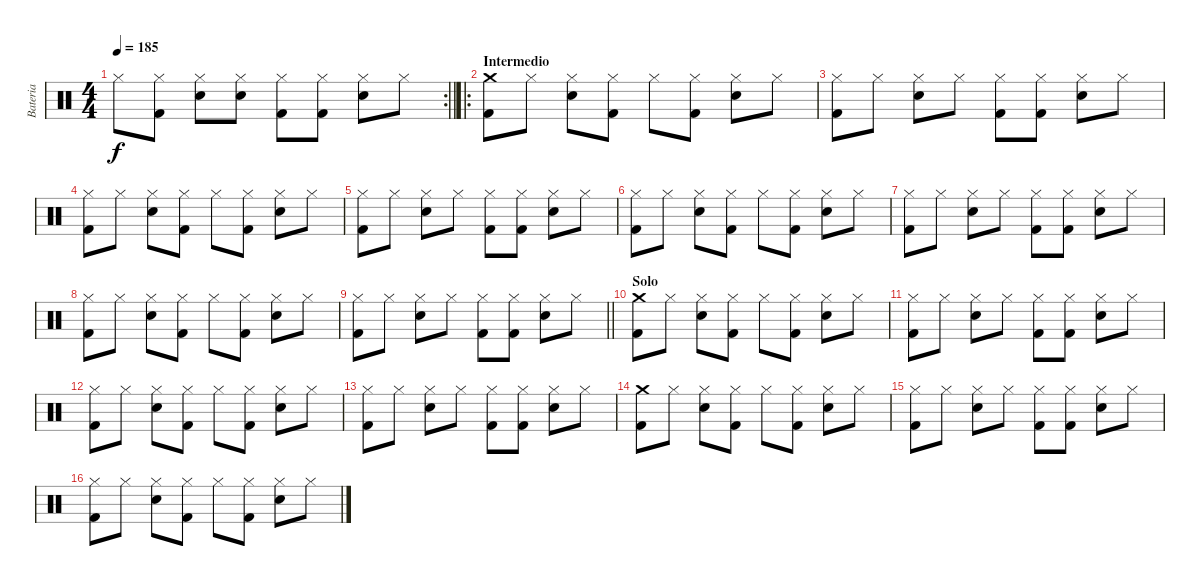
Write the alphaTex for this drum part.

\track ("Bateria" "Bateria") {instrument percussion}
\staff {score}
\articulation defaults
\rc 2
\ts (4 4)
\tempo 185
\clef neutral
\barLineRight lightlight
\ks c "Hi-Hat (closed)".8{dy f}
("Hi-Hat (closed)" "Kick (hit) 2").8 ("Hi-Hat (closed)" "Snare (hit) 2").8 ("Hi-Hat (closed)" "Snare (hit) 2").8 ("Hi-Hat (closed)" "Kick (hit) 2").8 ("Hi-Hat (closed)" "Kick (hit) 2").8 ("Hi-Hat (closed)" "Snare (hit) 2").8 "Hi-Hat (closed)".8 |
\ro
\section ("" "Intermedio")
("Crash medium (hit)" "Kick (hit) 2").8 "Hi-Hat (closed)".8 ("Hi-Hat (closed)" "Snare (hit) 2").8 ("Hi-Hat (closed)" "Kick (hit) 2").8 "Hi-Hat (closed)".8 ("Hi-Hat (closed)" "Kick (hit) 2").8 ("Hi-Hat (closed)" "Snare (hit) 2").8 "Hi-Hat (closed)".8 |
("Hi-Hat (closed)" "Kick (hit) 2").8 "Hi-Hat (closed)".8 ("Hi-Hat (closed)" "Snare (hit) 2").8 "Hi-Hat (closed)".8 ("Hi-Hat (closed)" "Kick (hit) 2").8 ("Hi-Hat (closed)" "Kick (hit) 2").8 ("Hi-Hat (closed)" "Snare (hit) 2").8 "Hi-Hat (closed)".8 |
("Hi-Hat (closed)" "Kick (hit) 2").8 "Hi-Hat (closed)".8 ("Hi-Hat (closed)" "Snare (hit) 2").8 ("Hi-Hat (closed)" "Kick (hit) 2").8 "Hi-Hat (closed)".8 ("Hi-Hat (closed)" "Kick (hit) 2").8 ("Hi-Hat (closed)" "Snare (hit) 2").8 "Hi-Hat (closed)".8 |
("Hi-Hat (closed)" "Kick (hit) 2").8 "Hi-Hat (closed)".8 ("Hi-Hat (closed)" "Snare (hit) 2").8 "Hi-Hat (closed)".8 ("Hi-Hat (closed)" "Kick (hit) 2").8 ("Hi-Hat (closed)" "Kick (hit) 2").8 ("Hi-Hat (closed)" "Snare (hit) 2").8 "Hi-Hat (closed)".8 |
("Hi-Hat (closed)" "Kick (hit) 2").8 "Hi-Hat (closed)".8 ("Hi-Hat (closed)" "Snare (hit) 2").8 ("Hi-Hat (closed)" "Kick (hit) 2").8 "Hi-Hat (closed)".8 ("Hi-Hat (closed)" "Kick (hit) 2").8 ("Hi-Hat (closed)" "Snare (hit) 2").8 "Hi-Hat (closed)".8 |
("Hi-Hat (closed)" "Kick (hit) 2").8 "Hi-Hat (closed)".8 ("Hi-Hat (closed)" "Snare (hit) 2").8 "Hi-Hat (closed)".8 ("Hi-Hat (closed)" "Kick (hit) 2").8 ("Hi-Hat (closed)" "Kick (hit) 2").8 ("Hi-Hat (closed)" "Snare (hit) 2").8 "Hi-Hat (closed)".8 |
("Hi-Hat (closed)" "Kick (hit) 2").8 "Hi-Hat (closed)".8 ("Hi-Hat (closed)" "Snare (hit) 2").8 ("Hi-Hat (closed)" "Kick (hit) 2").8 "Hi-Hat (closed)".8 ("Hi-Hat (closed)" "Kick (hit) 2").8 ("Hi-Hat (closed)" "Snare (hit) 2").8 "Hi-Hat (closed)".8 |
\barLineRight lightlight
("Hi-Hat (closed)" "Kick (hit) 2").8 "Hi-Hat (closed)".8 ("Hi-Hat (closed)" "Snare (hit) 2").8 "Hi-Hat (closed)".8 ("Hi-Hat (closed)" "Kick (hit) 2").8 ("Hi-Hat (closed)" "Kick (hit) 2").8 ("Hi-Hat (closed)" "Snare (hit) 2").8 "Hi-Hat (closed)".8 |
\section ("" "Solo")
("Crash medium (hit)" "Kick (hit) 2").8 "Hi-Hat (closed)".8 ("Hi-Hat (closed)" "Snare (hit) 2").8 ("Hi-Hat (closed)" "Kick (hit) 2").8 "Hi-Hat (closed)".8 ("Hi-Hat (closed)" "Kick (hit) 2").8 ("Hi-Hat (closed)" "Snare (hit) 2").8 "Hi-Hat (closed)".8 |
("Hi-Hat (closed)" "Kick (hit) 2").8 "Hi-Hat (closed)".8 ("Hi-Hat (closed)" "Snare (hit) 2").8 "Hi-Hat (closed)".8 ("Hi-Hat (closed)" "Kick (hit) 2").8 ("Hi-Hat (closed)" "Kick (hit) 2").8 ("Hi-Hat (closed)" "Snare (hit) 2").8 "Hi-Hat (closed)".8 |
("Hi-Hat (closed)" "Kick (hit) 2").8 "Hi-Hat (closed)".8 ("Hi-Hat (closed)" "Snare (hit) 2").8 ("Hi-Hat (closed)" "Kick (hit) 2").8 "Hi-Hat (closed)".8 ("Hi-Hat (closed)" "Kick (hit) 2").8 ("Hi-Hat (closed)" "Snare (hit) 2").8 "Hi-Hat (closed)".8 |
("Hi-Hat (closed)" "Kick (hit) 2").8 "Hi-Hat (closed)".8 ("Hi-Hat (closed)" "Snare (hit) 2").8 "Hi-Hat (closed)".8 ("Hi-Hat (closed)" "Kick (hit) 2").8 ("Hi-Hat (closed)" "Kick (hit) 2").8 ("Hi-Hat (closed)" "Snare (hit) 2").8 "Hi-Hat (closed)".8 |
("Crash medium (hit)" "Kick (hit) 2").8 "Hi-Hat (closed)".8 ("Hi-Hat (closed)" "Snare (hit) 2").8 ("Hi-Hat (closed)" "Kick (hit) 2").8 "Hi-Hat (closed)".8 ("Hi-Hat (closed)" "Kick (hit) 2").8 ("Hi-Hat (closed)" "Snare (hit) 2").8 "Hi-Hat (closed)".8 |
("Hi-Hat (closed)" "Kick (hit) 2").8 "Hi-Hat (closed)".8 ("Hi-Hat (closed)" "Snare (hit) 2").8 "Hi-Hat (closed)".8 ("Hi-Hat (closed)" "Kick (hit) 2").8 ("Hi-Hat (closed)" "Kick (hit) 2").8 ("Hi-Hat (closed)" "Snare (hit) 2").8 "Hi-Hat (closed)".8 |
("Hi-Hat (closed)" "Kick (hit) 2").8 "Hi-Hat (closed)".8 ("Hi-Hat (closed)" "Snare (hit) 2").8 ("Hi-Hat (closed)" "Kick (hit) 2").8 "Hi-Hat (closed)".8 ("Hi-Hat (closed)" "Kick (hit) 2").8 ("Hi-Hat (closed)" "Snare (hit) 2").8 "Hi-Hat (closed)".8
